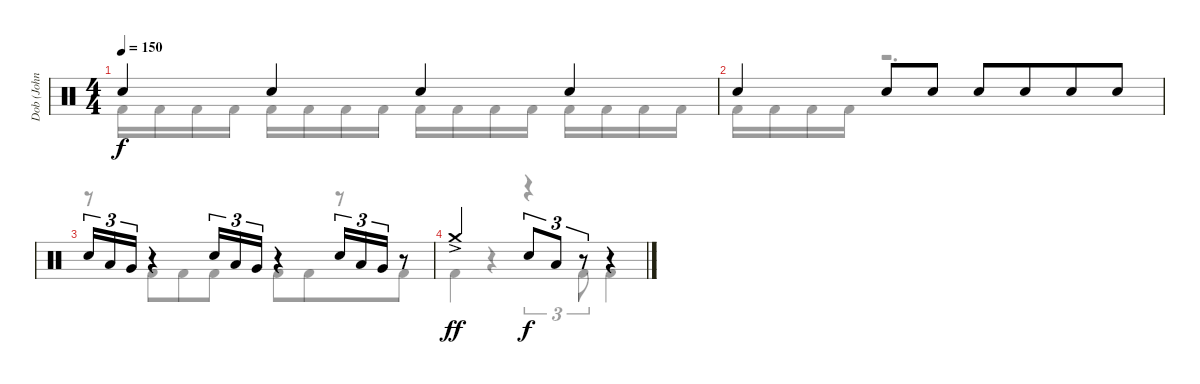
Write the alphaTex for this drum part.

\track ("Dob (John Macaluso)" "Dob (John ") {instrument percussion}
\staff {score}
\articulation defaults
\voice
\ts (4 4)
\tempo 150
\clef neutral
\ks c "Electric Snare (hit)".4{dy f} "Electric Snare (hit)".4 "Electric Snare (hit)".4 "Electric Snare (hit)".4
|
"Electric Snare (hit)".4 "Electric Snare (hit)".8 "Electric Snare (hit)".8 "Electric Snare (hit)".8 "Electric Snare (hit)".8{beam merge} "Electric Snare (hit)".8 "Electric Snare (hit)".8 |
"Electric Snare (hit)".16{tu (3 2)} "Low Tom (hit)".16{tu (3 2)} "Very Low Tom (hit)".16{tu (3 2)} r.4 "Electric Snare (hit)".16{tu (3 2)} "Low Tom (hit)".16{tu (3 2)} "Very Low Tom (hit)".16{tu (3 2)} r.4 "Electric Snare (hit)".16{tu (3 2)} "Low Tom (hit)".16{tu (3 2)} "Very Low Tom (hit)".16{tu (3 2)} r.8 |
"Crash medium (hit)"{ac}.2{dy ff} "Electric Snare (hit)".8{tu (3 2) dy f} "Low Tom (hit)".8{tu (3 2)} r.8{tu (3 2)} r.4 |
\voice
\clef neutral
\ottava regular
\simile none
\ks c "Kick (hit) 2".16{dy f} "Kick (hit) 2".16 "Kick (hit) 2".16 "Kick (hit) 2".16 "Kick (hit) 2".16 "Kick (hit) 2".16 "Kick (hit) 2".16 "Kick (hit) 2".16 "Kick (hit) 2".16 "Kick (hit) 2".16 "Kick (hit) 2".16 "Kick (hit) 2".16 "Kick (hit) 2".16 "Kick (hit) 2".16 "Kick (hit) 2".16 "Kick (hit) 2".16
|
"Kick (hit) 2".16 "Kick (hit) 2".16 "Kick (hit) 2".16 "Kick (hit) 2".16 r.2{d} |
r.8 "Kick (hit) 2".8{beam merge} "Kick (hit) 2".8{beam merge} "Kick (hit) 2".8 "Kick (hit) 2".8 "Kick (hit) 2".8{beam merge} r.8{beam merge} "Kick (hit) 2".8 |
"Kick (hit) 2".4 r.4 r.4{tu (3 2)} "Kick (hit) 2".8{tu (3 2)} "Kick (hit) 2".4 |
